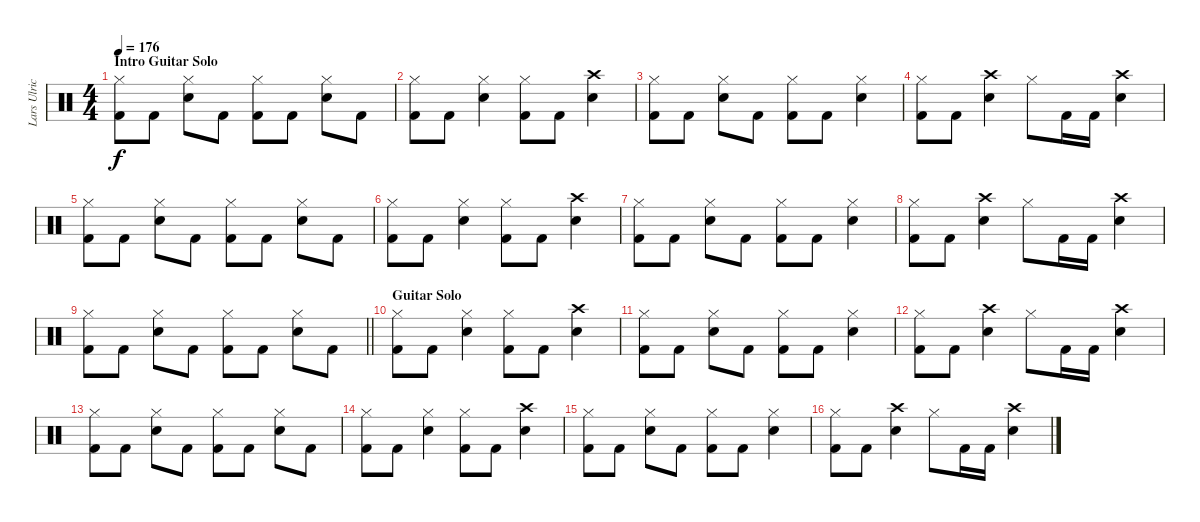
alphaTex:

\track ("Lars Ulrich" "Lars Ulric") {instrument percussion}
\staff {score}
\articulation defaults
\ts (4 4)
\section ("" "Intro Guitar Solo")
\tempo 176
\clef neutral
\ks c
("Hi-Hat (closed)" "Kick (hit) 2").8{dy f} "Kick (hit) 2".8 ("Hi-Hat (closed)" "Snare (hit) 2").8 "Kick (hit) 2".8 ("Hi-Hat (closed)" "Kick (hit) 2").8 "Kick (hit) 2".8 ("Hi-Hat (closed)" "Snare (hit) 2").8 "Kick (hit) 2".8 |
("Hi-Hat (closed)" "Kick (hit) 2").8 "Kick (hit) 2".8 ("Hi-Hat (closed)" "Snare (hit) 2").4 ("Hi-Hat (closed)" "Kick (hit) 2").8 "Kick (hit) 2".8 ("Crash high (hit)" "Snare (hit) 2").4 |
("Hi-Hat (closed)" "Kick (hit) 2").8 "Kick (hit) 2".8 ("Hi-Hat (closed)" "Snare (hit) 2").8 "Kick (hit) 2".8 ("Hi-Hat (closed)" "Kick (hit) 2").8 "Kick (hit) 2".8 ("Hi-Hat (closed)" "Snare (hit) 2").4 |
("Hi-Hat (closed)" "Kick (hit) 2").8 "Kick (hit) 2".8 ("Crash high (hit)" "Snare (hit) 2").4 "Hi-Hat (closed)".8 "Kick (hit) 2".16 "Kick (hit) 2".16 ("Crash high (hit)" "Snare (hit) 2").4 |
("Hi-Hat (closed)" "Kick (hit) 2").8 "Kick (hit) 2".8 ("Hi-Hat (closed)" "Snare (hit) 2").8 "Kick (hit) 2".8 ("Hi-Hat (closed)" "Kick (hit) 2").8 "Kick (hit) 2".8 ("Hi-Hat (closed)" "Snare (hit) 2").8 "Kick (hit) 2".8 |
("Hi-Hat (closed)" "Kick (hit) 2").8 "Kick (hit) 2".8 ("Hi-Hat (closed)" "Snare (hit) 2").4 ("Hi-Hat (closed)" "Kick (hit) 2").8 "Kick (hit) 2".8 ("Crash high (hit)" "Snare (hit) 2").4 |
("Hi-Hat (closed)" "Kick (hit) 2").8 "Kick (hit) 2".8 ("Hi-Hat (closed)" "Snare (hit) 2").8 "Kick (hit) 2".8 ("Hi-Hat (closed)" "Kick (hit) 2").8 "Kick (hit) 2".8 ("Hi-Hat (closed)" "Snare (hit) 2").4 |
("Hi-Hat (closed)" "Kick (hit) 2").8 "Kick (hit) 2".8 ("Crash high (hit)" "Snare (hit) 2").4 "Hi-Hat (closed)".8 "Kick (hit) 2".16 "Kick (hit) 2".16 ("Crash high (hit)" "Snare (hit) 2").4 |
\barLineRight lightlight
("Hi-Hat (closed)" "Kick (hit) 2").8 "Kick (hit) 2".8 ("Hi-Hat (closed)" "Snare (hit) 2").8 "Kick (hit) 2".8 ("Hi-Hat (closed)" "Kick (hit) 2").8 "Kick (hit) 2".8 ("Hi-Hat (closed)" "Snare (hit) 2").8 "Kick (hit) 2".8 |
\section ("" "Guitar Solo")
("Hi-Hat (closed)" "Kick (hit) 2").8 "Kick (hit) 2".8 ("Hi-Hat (closed)" "Snare (hit) 2").4 ("Hi-Hat (closed)" "Kick (hit) 2").8 "Kick (hit) 2".8 ("Crash high (hit)" "Snare (hit) 2").4 |
("Hi-Hat (closed)" "Kick (hit) 2").8 "Kick (hit) 2".8 ("Hi-Hat (closed)" "Snare (hit) 2").8 "Kick (hit) 2".8 ("Hi-Hat (closed)" "Kick (hit) 2").8 "Kick (hit) 2".8 ("Hi-Hat (closed)" "Snare (hit) 2").4 |
("Hi-Hat (closed)" "Kick (hit) 2").8 "Kick (hit) 2".8 ("Crash high (hit)" "Snare (hit) 2").4 "Hi-Hat (closed)".8 "Kick (hit) 2".16 "Kick (hit) 2".16 ("Crash high (hit)" "Snare (hit) 2").4 |
("Hi-Hat (closed)" "Kick (hit) 2").8 "Kick (hit) 2".8 ("Hi-Hat (closed)" "Snare (hit) 2").8 "Kick (hit) 2".8 ("Hi-Hat (closed)" "Kick (hit) 2").8 "Kick (hit) 2".8 ("Hi-Hat (closed)" "Snare (hit) 2").8 "Kick (hit) 2".8 |
("Hi-Hat (closed)" "Kick (hit) 2").8 "Kick (hit) 2".8 ("Hi-Hat (closed)" "Snare (hit) 2").4 ("Hi-Hat (closed)" "Kick (hit) 2").8 "Kick (hit) 2".8 ("Crash high (hit)" "Snare (hit) 2").4 |
("Hi-Hat (closed)" "Kick (hit) 2").8 "Kick (hit) 2".8 ("Hi-Hat (closed)" "Snare (hit) 2").8 "Kick (hit) 2".8 ("Hi-Hat (closed)" "Kick (hit) 2").8 "Kick (hit) 2".8 ("Hi-Hat (closed)" "Snare (hit) 2").4 |
("Hi-Hat (closed)" "Kick (hit) 2").8 "Kick (hit) 2".8 ("Crash high (hit)" "Snare (hit) 2").4 "Hi-Hat (closed)".8 "Kick (hit) 2".16 "Kick (hit) 2".16 ("Crash high (hit)" "Snare (hit) 2").4
